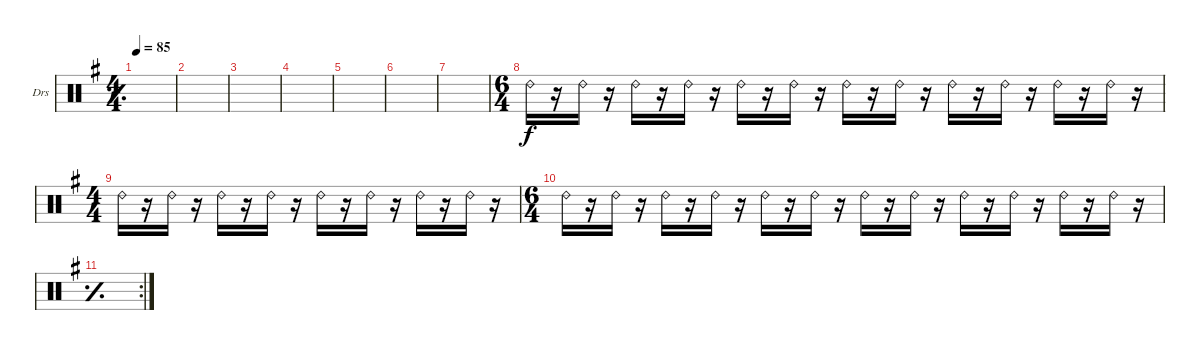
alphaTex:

\defaultSystemsLayout 4
\bracketExtendMode nobrackets
\firstSystemTrackNameOrientation horizontal
\otherSystemsTrackNameOrientation horizontal
\track ("Drums" "Drs") {instrument percussion}
\staff {score}
\articulation defaults
\ts (4 4)
\scale
0.200378
\tempo 85
\accidentals auto
\clef neutral
\ottava regular
\simile simple
\ks g
|
\scale
0.188877 |
\scale
0.189744 |
\scale
0.270833 |
\scale
0.154167 |
\scale
0.154167 |
\scale
0.185357 |
\ts (6 4)
\scale
0.236439
\simile none "Ride (bell) 2".16
r.16 "Ride (bell) 2".16 r.16 "Ride (bell) 2".16 r.16 "Ride (bell) 2".16 r.16 "Ride (bell) 2".16 r.16 "Ride (bell) 2".16 r.16 "Ride (bell) 2".16 r.16 "Ride (bell) 2".16 r.16 "Ride (bell) 2".16 r.16 "Ride (bell) 2".16 r.16 "Ride (bell) 2".16 r.16 "Ride (bell) 2".16 r.16 |
\ts (4 4)
"Ride (bell) 2".16 r.16 "Ride (bell) 2".16 r.16 "Ride (bell) 2".16 r.16 "Ride (bell) 2".16 r.16 "Ride (bell) 2".16 r.16 "Ride (bell) 2".16 r.16 "Ride (bell) 2".16 r.16 "Ride (bell) 2".16 r.16 |
\ts (6 4)
"Ride (bell) 2".16 r.16 "Ride (bell) 2".16 r.16 "Ride (bell) 2".16 r.16 "Ride (bell) 2".16 r.16 "Ride (bell) 2".16 r.16 "Ride (bell) 2".16 r.16 "Ride (bell) 2".16 r.16 "Ride (bell) 2".16 r.16 "Ride (bell) 2".16 r.16 "Ride (bell) 2".16 r.16 "Ride (bell) 2".16 r.16 "Ride (bell) 2".16 r.16 |
\rc 2
\simile simple
